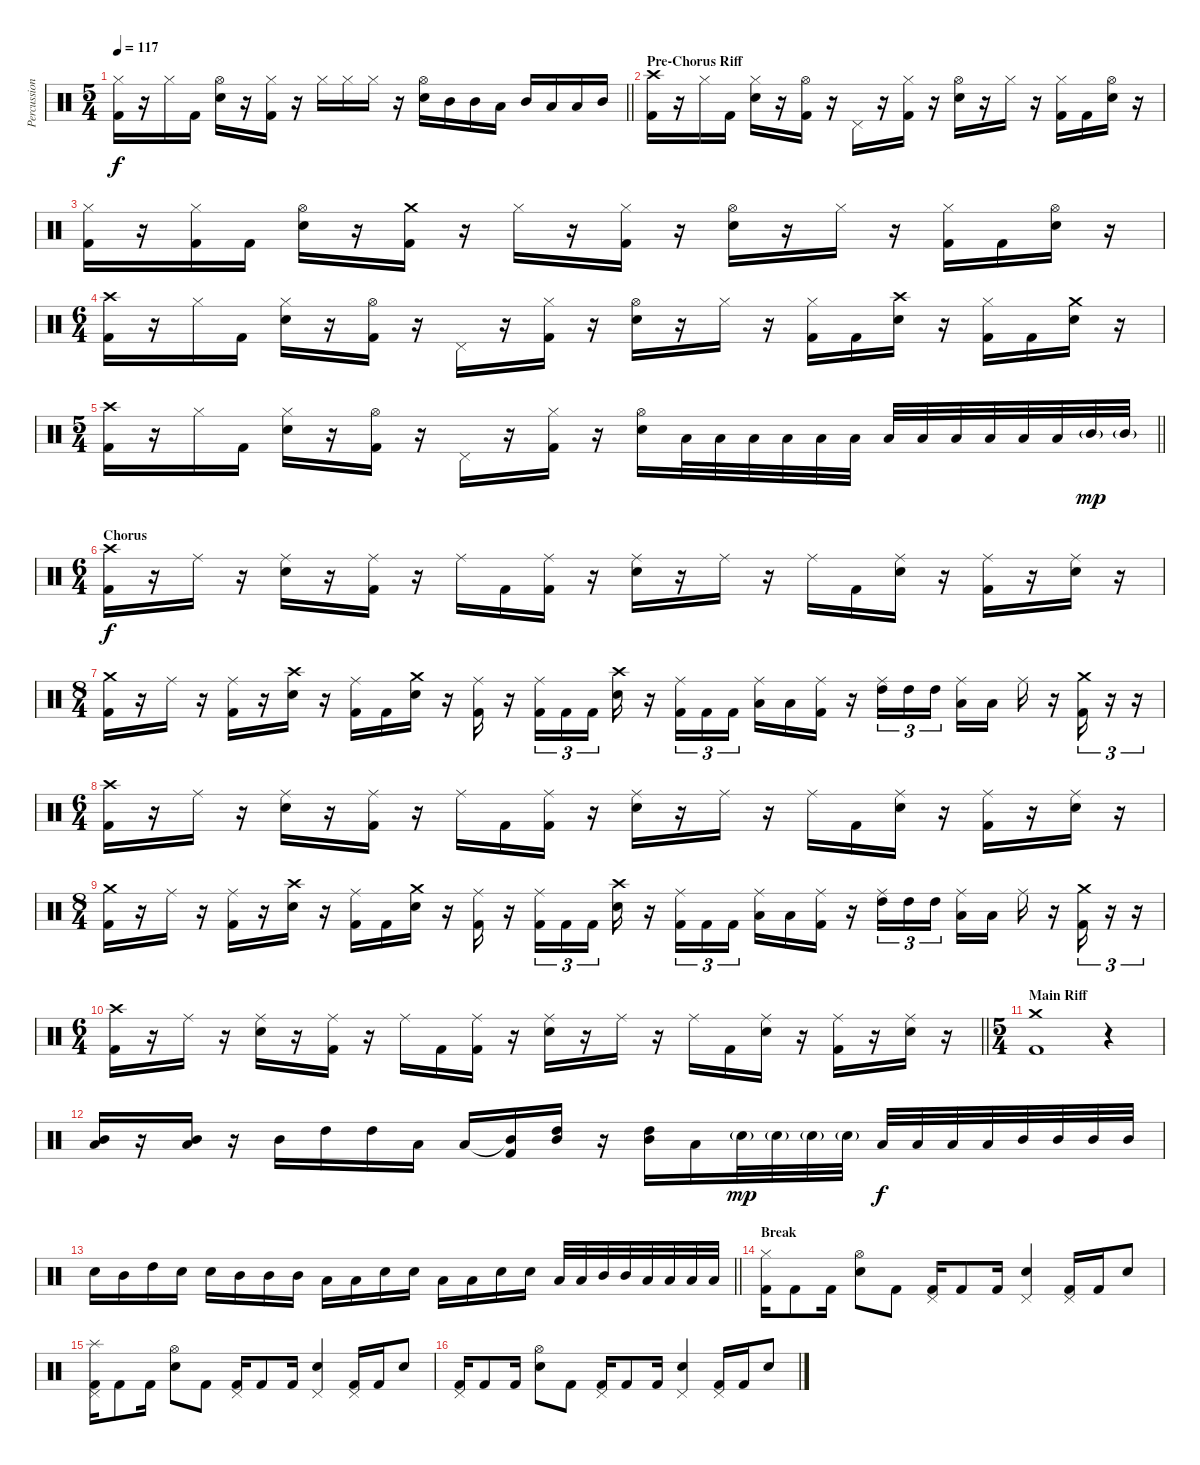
\track ("Percussion" "Percussion") {instrument percussion}
\staff {score}
\articulation defaults
\ts (5 4)
\tempo 117
\clef neutral
\barLineRight lightlight
\ks c
("Hi-Hat (closed)" "Kick (hit) 2").16{dy f} r.16 "Hi-Hat (closed)".16 "Kick (hit) 2".16 ("Hi-Hat (open)" "Electric Snare (hit)").16 r.16 ("Hi-Hat (closed)" "Kick (hit) 2").16 r.16 "Hi-Hat (closed)".16 "Hi-Hat (closed)".16 "Hi-Hat (closed)".16 r.16 ("Hi-Hat (open)" "Electric Snare (hit)").16 "Mid Tom (hit)".16 "Mid Tom (hit)".16 "Low Tom (hit)".16 "Mid Tom (hit)".16 "Low Tom (hit)".16 "Low Tom (hit)".16 "Mid Tom (hit)".16 |
\section ("" "Pre-Chorus Riff")
("Crash high (hit)" "Kick (hit) 2").16 r.16 "Hi-Hat (closed)".16 "Kick (hit) 2".16 ("Hi-Hat (closed)" "Electric Snare (hit)").16 r.16 ("Hi-Hat (open)" "Kick (hit) 2").16 r.16 "Pedal Hi-Hat (hit)".16 r.16 ("Hi-Hat (closed)" "Kick (hit) 2").16 r.16 ("Hi-Hat (open)" "Electric Snare (hit)").16 r.16 "Hi-Hat (closed)".16 r.16 ("Hi-Hat (closed)" "Kick (hit) 2").16 "Kick (hit) 2".16 ("Hi-Hat (open)" "Electric Snare (hit)").16 r.16 |
("Hi-Hat (closed)" "Kick (hit) 2").16 r.16 ("Hi-Hat (closed)" "Kick (hit) 2").16 "Kick (hit) 2".16 ("Hi-Hat (open)" "Electric Snare (hit)").16 r.16 ("Crash medium (hit)" "Kick (hit) 2").16 r.16 "Hi-Hat (closed)".16 r.16 ("Hi-Hat (closed)" "Kick (hit) 2").16 r.16 ("Hi-Hat (open)" "Electric Snare (hit)").16 r.16 "Hi-Hat (closed)".16 r.16 ("Hi-Hat (closed)" "Kick (hit) 2").16 "Kick (hit) 2".16 ("Hi-Hat (open)" "Electric Snare (hit)").16 r.16 |
\ts (6 4)
("Crash high (hit)" "Kick (hit) 2").16 r.16 "Hi-Hat (closed)".16 "Kick (hit) 2".16 ("Hi-Hat (closed)" "Electric Snare (hit)").16 r.16 ("Hi-Hat (open)" "Kick (hit) 2").16 r.16 "Pedal Hi-Hat (hit)".16 r.16 ("Hi-Hat (closed)" "Kick (hit) 2").16 r.16 ("Hi-Hat (open)" "Electric Snare (hit)").16 r.16 "Hi-Hat (closed)".16 r.16 ("Hi-Hat (closed)" "Kick (hit) 2").16 "Kick (hit) 2".16 ("Crash high (hit)" "Electric Snare (hit)").16 r.16 ("Hi-Hat (closed)" "Kick (hit) 2").16 "Kick (hit) 2".16 ("Crash medium (hit)" "Electric Snare (hit)").16 r.16 |
\ts (5 4)
\barLineRight lightlight
("Crash high (hit)" "Kick (hit) 2").16 r.16 "Hi-Hat (closed)".16 "Kick (hit) 2".16 ("Hi-Hat (closed)" "Electric Snare (hit)").16 r.16 ("Hi-Hat (open)" "Kick (hit) 2").16 r.16 "Pedal Hi-Hat (hit)".16 r.16 ("Hi-Hat (closed)" "Kick (hit) 2").16 r.16 ("Hi-Hat (open)" "Electric Snare (hit)").16 "Low Floor Tom (hit)".32 "Low Floor Tom (hit)".32 "Low Floor Tom (hit)".32 "Low Floor Tom (hit)".32 "Low Tom (hit)".32 "Low Tom (hit)".32 "Low Floor Tom (hit)".32 "Low Floor Tom (hit)".32 "Low Floor Tom (hit)".32 "Low Floor Tom (hit)".32 "Low Tom (hit)".32 "Low Tom (hit)".32 "Mid Tom (hit)"{g}.32{dy mp} "Mid Tom (hit)"{g}.32 |
\ts (6 4)
\section ("" "Chorus")
("Crash high (hit)" "Kick (hit) 2").16{dy f} r.16 "Ride (middle)".16 r.16 ("Ride (middle)" "Electric Snare (hit)").16 r.16 ("Ride (middle)" "Kick (hit) 2").16 r.16 "Ride (middle)".16 "Kick (hit) 2".16 ("Ride (middle)" "Kick (hit) 2").16 r.16 ("Ride (middle)" "Electric Snare (hit)").16 r.16 "Ride (middle)".16 r.16 "Ride (middle)".16 "Kick (hit) 2".16 ("Ride (middle)" "Electric Snare (hit)").16 r.16 ("Ride (middle)" "Kick (hit) 2").16 r.16 ("Ride (middle)" "Electric Snare (hit)").16 r.16 |
\ts (8 4)
("Crash medium (hit)" "Kick (hit) 2").16 r.16 "Ride (middle)".16 r.16 ("Ride (middle)" "Kick (hit) 2").16 r.16 ("Crash high (hit)" "Electric Snare (hit)").16 r.16 ("Ride (middle)" "Kick (hit) 2").16 "Kick (hit) 2".16 ("Crash medium (hit)" "Electric Snare (hit)").16 r.16 ("Ride (middle)" "Kick (hit) 2").16 r.16 ("Ride (middle)" "Kick (hit) 2").16{tu (3 2)} "Kick (hit) 2".16{tu (3 2)} "Kick (hit) 2".16{tu (3 2)} ("Crash high (hit)" "Electric Snare (hit)").16 r.16 ("Ride (middle)" "Kick (hit) 2").16{tu (3 2)} "Kick (hit) 2".16{tu (3 2)} "Kick (hit) 2".16{tu (3 2)} ("Ride (middle)" "Low Tom (hit)").16 "Low Tom (hit)".16 ("Ride (middle)" "Kick (hit) 2").16 r.16 ("Ride (middle)" "High Tom (hit)").16{tu (3 2)} "High Tom (hit)".16{tu (3 2)} "High Tom (hit)".16{tu (3 2) beam splitsecondary} ("Ride (middle)" "Low Tom (hit)").16 "Low Tom (hit)".16 "Ride (middle)".16 r.16 ("Crash medium (hit)" "Kick (hit) 2").16{tu (3 2)} r.16{tu (3 2)} r.16{tu (3 2)} |
\ts (6 4)
("Crash high (hit)" "Kick (hit) 2").16 r.16 "Ride (middle)".16 r.16 ("Ride (middle)" "Electric Snare (hit)").16 r.16 ("Ride (middle)" "Kick (hit) 2").16 r.16 "Ride (middle)".16 "Kick (hit) 2".16 ("Ride (middle)" "Kick (hit) 2").16 r.16 ("Ride (middle)" "Electric Snare (hit)").16 r.16 "Ride (middle)".16 r.16 "Ride (middle)".16 "Kick (hit) 2".16 ("Ride (middle)" "Electric Snare (hit)").16 r.16 ("Ride (middle)" "Kick (hit) 2").16 r.16 ("Ride (middle)" "Electric Snare (hit)").16 r.16 |
\ts (8 4)
("Crash medium (hit)" "Kick (hit) 2").16 r.16 "Ride (middle)".16 r.16 ("Ride (middle)" "Kick (hit) 2").16 r.16 ("Crash high (hit)" "Electric Snare (hit)").16 r.16 ("Ride (middle)" "Kick (hit) 2").16 "Kick (hit) 2".16 ("Crash medium (hit)" "Electric Snare (hit)").16 r.16 ("Ride (middle)" "Kick (hit) 2").16 r.16 ("Ride (middle)" "Kick (hit) 2").16{tu (3 2)} "Kick (hit) 2".16{tu (3 2)} "Kick (hit) 2".16{tu (3 2)} ("Crash high (hit)" "Electric Snare (hit)").16 r.16 ("Ride (middle)" "Kick (hit) 2").16{tu (3 2)} "Kick (hit) 2".16{tu (3 2)} "Kick (hit) 2".16{tu (3 2)} ("Ride (middle)" "Low Tom (hit)").16 "Low Tom (hit)".16 ("Ride (middle)" "Kick (hit) 2").16 r.16 ("Ride (middle)" "High Tom (hit)").16{tu (3 2)} "High Tom (hit)".16{tu (3 2)} "High Tom (hit)".16{tu (3 2) beam splitsecondary} ("Ride (middle)" "Low Tom (hit)").16 "Low Tom (hit)".16 "Ride (middle)".16 r.16 ("Crash medium (hit)" "Kick (hit) 2").16{tu (3 2)} r.16{tu (3 2)} r.16{tu (3 2)} |
\ts (6 4)
\barLineRight lightlight
("Crash high (hit)" "Kick (hit) 2").16 r.16 "Ride (middle)".16 r.16 ("Ride (middle)" "Electric Snare (hit)").16 r.16 ("Ride (middle)" "Kick (hit) 2").16 r.16 "Ride (middle)".16 "Kick (hit) 2".16 ("Ride (middle)" "Kick (hit) 2").16 r.16 ("Ride (middle)" "Electric Snare (hit)").16 r.16 "Ride (middle)".16 r.16 "Ride (middle)".16 "Kick (hit) 2".16 ("Ride (middle)" "Electric Snare (hit)").16 r.16 ("Ride (middle)" "Kick (hit) 2").16 r.16 ("Ride (middle)" "Electric Snare (hit)").16 r.16 |
\ts (5 4)
\section ("" "Main Riff")
("Crash medium (hit)" "Kick (hit) 2").1 r.4 |
("Mid Tom (hit)" "Low Tom (hit)").16 r.16 ("Mid Tom (hit)" "Low Tom (hit)").16 r.16 "Mid Tom (hit)".16 "High Tom (hit)".16 "High Tom (hit)".16 "Low Tom (hit)".16 "Low Tom (hit)".16 ("Mid Tom (hit)"{t} "Kick (hit) 2").16 ("Mid Tom (hit)" "High Tom (hit)").16 r.16 ("Mid Tom (hit)" "High Tom (hit)").16 "Low Tom (hit)".16 "Electric Snare (hit)"{g}.32{dy mp} "Electric Snare (hit)"{g}.32 "Electric Snare (hit)"{g}.32 "Electric Snare (hit)"{g}.32 "Low Tom (hit)".32{dy f} "Low Tom (hit)".32 "Low Tom (hit)".32 "Low Tom (hit)".32 "Mid Tom (hit)".32 "Mid Tom (hit)".32 "Mid Tom (hit)".32 "Mid Tom (hit)".32 |
\barLineRight lightlight "Electric Snare (hit)".16 "Mid Tom (hit)".16 "High Tom (hit)".16 "Electric Snare (hit)".16 "Electric Snare (hit)".16 "Mid Tom (hit)".16 "Mid Tom (hit)".16 "Mid Tom (hit)".16 "Low Tom (hit)".16 "Low Tom (hit)".16 "Electric Snare (hit)".16 "Electric Snare (hit)".16 "Low Tom (hit)".16 "Low Tom (hit)".16 "Electric Snare (hit)".16 "Electric Snare (hit)".16 "Low Tom (hit)".32 "Low Tom (hit)".32 "Mid Tom (hit)".32 "Mid Tom (hit)".32 "Low Tom (hit)".32 "Low Tom (hit)".32 "Low Tom (hit)".32 "Low Tom (hit)".32
|
\section ("" "Break")
("Hi-Hat (closed)" "Kick (hit) 2").16 "Kick (hit) 2".8 "Kick (hit) 2".16 ("Hi-Hat (open)" "Electric Snare (hit)").8 "Kick (hit) 2".8 ("Pedal Hi-Hat (hit)" "Kick (hit) 2").16 "Kick (hit) 2".8 "Kick (hit) 2".16 ("Pedal Hi-Hat (hit)" "Electric Snare (hit)").4 ("Pedal Hi-Hat (hit)" "Kick (hit) 2").16 "Kick (hit) 2".16 "Electric Snare (hit)".8 |
("Splash (hit)" "Pedal Hi-Hat (hit)" "Kick (hit) 2").16 "Kick (hit) 2".8 "Kick (hit) 2".16 ("Hi-Hat (open)" "Electric Snare (hit)").8 "Kick (hit) 2".8 ("Pedal Hi-Hat (hit)" "Kick (hit) 2").16 "Kick (hit) 2".8 "Kick (hit) 2".16 ("Pedal Hi-Hat (hit)" "Electric Snare (hit)").4 ("Pedal Hi-Hat (hit)" "Kick (hit) 2").16 "Kick (hit) 2".16 "Electric Snare (hit)".8 |
("Pedal Hi-Hat (hit)" "Kick (hit) 2").16 "Kick (hit) 2".8 "Kick (hit) 2".16 ("Hi-Hat (open)" "Electric Snare (hit)").8 "Kick (hit) 2".8 ("Pedal Hi-Hat (hit)" "Kick (hit) 2").16 "Kick (hit) 2".8 "Kick (hit) 2".16 ("Pedal Hi-Hat (hit)" "Electric Snare (hit)").4 ("Pedal Hi-Hat (hit)" "Kick (hit) 2").16 "Kick (hit) 2".16 "Electric Snare (hit)".8
